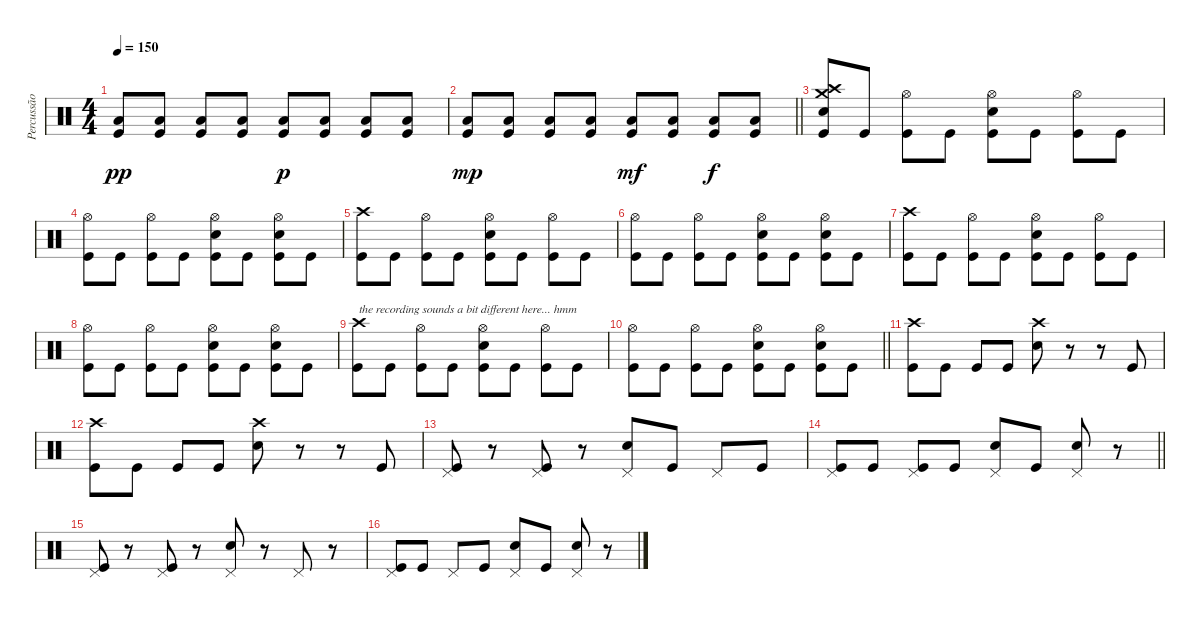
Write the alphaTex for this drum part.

\track ("Percussão" "Percussão") {instrument percussion}
\staff {score}
\articulation defaults
\ts (4 4)
\tempo 150
\clef neutral
\ks c
("Low Floor Tom (hit)" "Kick (hit)").8{dy pp} ("Low Floor Tom (hit)" "Kick (hit)").8 ("Low Floor Tom (hit)" "Kick (hit)").8 ("Low Floor Tom (hit)" "Kick (hit)").8 ("Low Floor Tom (hit)" "Kick (hit)").8{dy p} ("Low Floor Tom (hit)" "Kick (hit)").8 ("Low Floor Tom (hit)" "Kick (hit)").8 ("Low Floor Tom (hit)" "Kick (hit)").8 |
\barLineRight lightlight
("Low Floor Tom (hit)" "Kick (hit)").8{dy mp} ("Low Floor Tom (hit)" "Kick (hit)").8 ("Low Floor Tom (hit)" "Kick (hit)").8 ("Low Floor Tom (hit)" "Kick (hit)").8 ("Low Floor Tom (hit)" "Kick (hit)").8{dy mf} ("Low Floor Tom (hit)" "Kick (hit)").8 ("Low Floor Tom (hit)" "Kick (hit)").8{dy f} ("Low Floor Tom (hit)" "Kick (hit)").8 |
("Crash high (hit)" "Crash medium (hit)" "Snare (hit) 2" "Kick (hit)").8 "Kick (hit)".8 ("Hi-Hat (open)" "Kick (hit)").8 "Kick (hit)".8 ("Hi-Hat (open)" "Snare (hit) 2" "Kick (hit)").8 "Kick (hit)".8 ("Hi-Hat (open)" "Kick (hit)").8 "Kick (hit)".8 |
("Hi-Hat (open)" "Kick (hit)").8 "Kick (hit)".8 ("Hi-Hat (open)" "Kick (hit)").8 "Kick (hit)".8 ("Hi-Hat (open)" "Snare (hit) 2" "Kick (hit)").8 "Kick (hit)".8 ("Hi-Hat (open)" "Snare (hit) 2" "Kick (hit)").8 "Kick (hit)".8 |
("Crash high (hit)" "Kick (hit)").8 "Kick (hit)".8 ("Hi-Hat (open)" "Kick (hit)").8 "Kick (hit)".8 ("Hi-Hat (open)" "Snare (hit) 2" "Kick (hit)").8 "Kick (hit)".8 ("Hi-Hat (open)" "Kick (hit)").8 "Kick (hit)".8 |
("Hi-Hat (open)" "Kick (hit)").8 "Kick (hit)".8 ("Hi-Hat (open)" "Kick (hit)").8 "Kick (hit)".8 ("Hi-Hat (open)" "Snare (hit) 2" "Kick (hit)").8 "Kick (hit)".8 ("Hi-Hat (open)" "Snare (hit) 2" "Kick (hit)").8 "Kick (hit)".8 |
("Crash high (hit)" "Kick (hit)").8 "Kick (hit)".8 ("Hi-Hat (open)" "Kick (hit)").8 "Kick (hit)".8 ("Hi-Hat (open)" "Snare (hit) 2" "Kick (hit)").8 "Kick (hit)".8 ("Hi-Hat (open)" "Kick (hit)").8 "Kick (hit)".8 |
("Hi-Hat (open)" "Kick (hit)").8 "Kick (hit)".8 ("Hi-Hat (open)" "Kick (hit)").8 "Kick (hit)".8 ("Hi-Hat (open)" "Snare (hit) 2" "Kick (hit)").8 "Kick (hit)".8 ("Hi-Hat (open)" "Snare (hit) 2" "Kick (hit)").8 "Kick (hit)".8 |
("Crash high (hit)" "Kick (hit)").8{txt "the recording sounds a bit different here... hmm"} "Kick (hit)".8 ("Hi-Hat (open)" "Kick (hit)").8 "Kick (hit)".8 ("Hi-Hat (open)" "Snare (hit) 2" "Kick (hit)").8 "Kick (hit)".8 ("Hi-Hat (open)" "Kick (hit)").8 "Kick (hit)".8 |
\barLineRight lightlight
("Hi-Hat (open)" "Kick (hit)").8 "Kick (hit)".8 ("Hi-Hat (open)" "Kick (hit)").8 "Kick (hit)".8 ("Hi-Hat (open)" "Snare (hit) 2" "Kick (hit)").8 "Kick (hit)".8 ("Hi-Hat (open)" "Snare (hit) 2" "Kick (hit)").8 "Kick (hit)".8 |
("Crash high (hit)" "Kick (hit)").8 "Kick (hit)".8 "Kick (hit)".8 "Kick (hit)".8 ("Crash high (hit)" "Snare (hit) 2").8 r.8 r.8 "Kick (hit)".8 |
("Crash high (hit)" "Kick (hit)").8 "Kick (hit)".8 "Kick (hit)".8 "Kick (hit)".8 ("Crash high (hit)" "Snare (hit) 2").8 r.8 r.8 "Kick (hit)".8 |
("Pedal Hi-Hat (hit)" "Kick (hit)").8 r.8 ("Pedal Hi-Hat (hit)" "Kick (hit)").8 r.8 ("Pedal Hi-Hat (hit)" "Snare (hit) 2").8 "Kick (hit)".8 "Pedal Hi-Hat (hit)".8 "Kick (hit)".8 |
\barLineRight lightlight
("Pedal Hi-Hat (hit)" "Kick (hit)").8 "Kick (hit)".8 ("Pedal Hi-Hat (hit)" "Kick (hit)").8 "Kick (hit)".8 ("Pedal Hi-Hat (hit)" "Snare (hit) 2").8 "Kick (hit)".8 ("Pedal Hi-Hat (hit)" "Snare (hit) 2").8 r.8 |
("Pedal Hi-Hat (hit)" "Kick (hit)").8 r.8 ("Pedal Hi-Hat (hit)" "Kick (hit)").8 r.8 ("Pedal Hi-Hat (hit)" "Snare (hit) 2").8 r.8 "Pedal Hi-Hat (hit)".8 r.8 |
("Pedal Hi-Hat (hit)" "Kick (hit)").8 "Kick (hit)".8 "Pedal Hi-Hat (hit)".8 "Kick (hit)".8 ("Pedal Hi-Hat (hit)" "Snare (hit) 2").8 "Kick (hit)".8 ("Pedal Hi-Hat (hit)" "Snare (hit) 2").8 r.8
